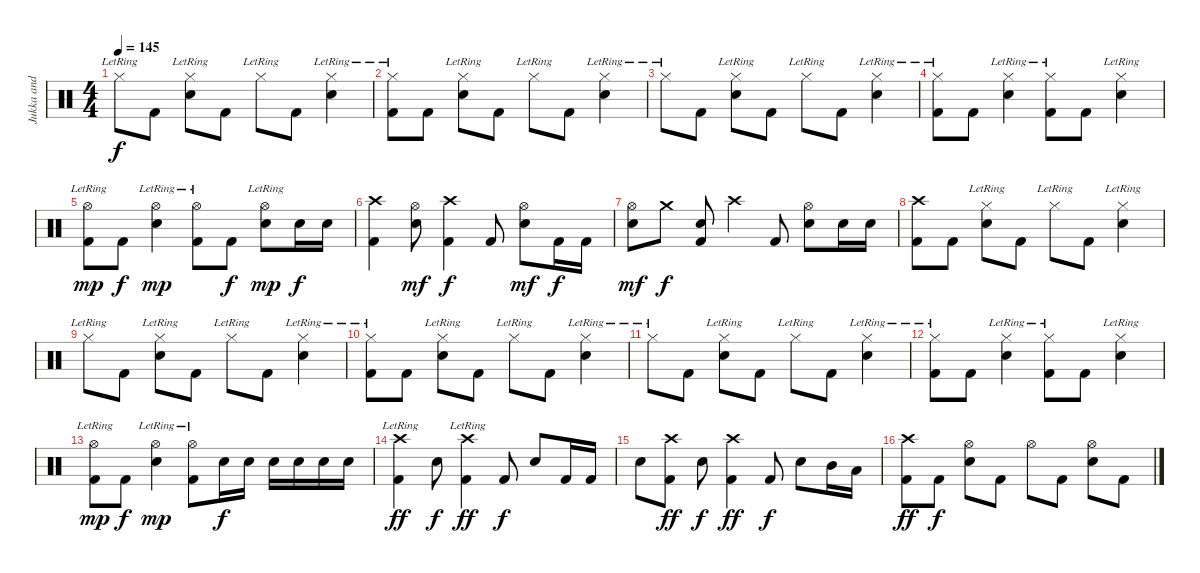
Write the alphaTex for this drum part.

\track ("Jukka and his drums" "Jukka and ") {instrument percussion}
\staff {score}
\articulation defaults
\ts (4 4)
\tempo 145
\clef neutral
\ks c "Hi-Hat (closed)"{lr}.8{dy f} "Kick (hit) 2".8
("Hi-Hat (closed)"{lr} "Snare (hit) 2").8 "Kick (hit) 2".8 "Hi-Hat (closed)"{lr}.8 "Kick (hit) 2".8 ("Hi-Hat (closed)"{lr} "Snare (hit) 2").4 |
("Kick (hit) 2" "Hi-Hat (closed)"{lr}).8 "Kick (hit) 2".8 ("Hi-Hat (closed)"{lr} "Snare (hit) 2").8 "Kick (hit) 2".8 "Hi-Hat (closed)"{lr}.8 "Kick (hit) 2".8 ("Hi-Hat (closed)"{lr} "Snare (hit) 2").4 |
"Hi-Hat (closed)"{lr}.8 "Kick (hit) 2".8 ("Hi-Hat (closed)"{lr} "Snare (hit) 2").8 "Kick (hit) 2".8 "Hi-Hat (closed)"{lr}.8 "Kick (hit) 2".8 ("Hi-Hat (closed)"{lr} "Snare (hit) 2").4 |
("Kick (hit) 2" "Hi-Hat (closed)"{lr}).8 "Kick (hit) 2".8 ("Hi-Hat (closed)"{lr} "Snare (hit) 2").4 ("Kick (hit) 2" "Hi-Hat (closed)"{lr}).8 "Kick (hit) 2".8 ("Hi-Hat (closed)"{lr} "Snare (hit) 2").4 |
("Kick (hit) 2" "Hi-Hat (open)"{lr}).8{dy mp} "Kick (hit) 2".8{dy f} ("Hi-Hat (open)"{lr} "Snare (hit) 2").4{dy mp} ("Kick (hit) 2" "Hi-Hat (open)"{lr}).8 "Kick (hit) 2".8{dy f} ("Hi-Hat (open)"{lr} "Snare (hit) 2").8{dy mp} "Snare (hit) 2".16{dy f} "Snare (hit) 2".16 |
("Kick (hit) 2" "Crash high (hit)").4 ("Hi-Hat (open)" "Snare (hit) 2").8{dy mf} ("Kick (hit) 2" "Crash high (hit)").4{dy f} "Kick (hit) 2".8 ("Hi-Hat (open)" "Snare (hit) 2").8{dy mf} "Kick (hit) 2".16{dy f} "Kick (hit) 2".16 |
("Hi-Hat (open)" "Snare (hit) 2").8{dy mf} "Crash medium (hit)".8{dy f} ("Kick (hit) 2" "Snare (hit) 2").8 "Crash high (hit)".4 "Kick (hit) 2".8 ("Hi-Hat (open)" "Snare (hit) 2").8 "Snare (hit) 2".16 "Snare (hit) 2".16 |
("Kick (hit) 2" "Crash high (hit)").8 "Kick (hit) 2".8 ("Hi-Hat (closed)"{lr} "Snare (hit) 2").8 "Kick (hit) 2".8 "Hi-Hat (closed)"{lr}.8 "Kick (hit) 2".8 ("Hi-Hat (closed)"{lr} "Snare (hit) 2").4 |
"Hi-Hat (closed)"{lr}.8 "Kick (hit) 2".8 ("Hi-Hat (closed)"{lr} "Snare (hit) 2").8 "Kick (hit) 2".8 "Hi-Hat (closed)"{lr}.8 "Kick (hit) 2".8 ("Hi-Hat (closed)"{lr} "Snare (hit) 2").4 |
("Kick (hit) 2" "Hi-Hat (closed)"{lr}).8 "Kick (hit) 2".8 ("Hi-Hat (closed)"{lr} "Snare (hit) 2").8 "Kick (hit) 2".8 "Hi-Hat (closed)"{lr}.8 "Kick (hit) 2".8 ("Hi-Hat (closed)"{lr} "Snare (hit) 2").4 |
"Hi-Hat (closed)"{lr}.8 "Kick (hit) 2".8 ("Hi-Hat (closed)"{lr} "Snare (hit) 2").8 "Kick (hit) 2".8 "Hi-Hat (closed)"{lr}.8 "Kick (hit) 2".8 ("Hi-Hat (closed)"{lr} "Snare (hit) 2").4 |
("Kick (hit) 2" "Hi-Hat (closed)"{lr}).8 "Kick (hit) 2".8 ("Hi-Hat (closed)"{lr} "Snare (hit) 2").4 ("Kick (hit) 2" "Hi-Hat (closed)"{lr}).8 "Kick (hit) 2".8 ("Hi-Hat (closed)"{lr} "Snare (hit) 2").4 |
("Kick (hit) 2" "Hi-Hat (open)"{lr}).8{dy mp} "Kick (hit) 2".8{dy f} ("Hi-Hat (open)"{lr} "Snare (hit) 2").4{dy mp} ("Kick (hit) 2" "Hi-Hat (open)"{lr}).8 "Snare (hit) 2".16{dy f} "Snare (hit) 2".16 "Snare (hit) 2".16 "Snare (hit) 2".16 "Snare (hit) 2".16 "Snare (hit) 2".16 |
("Kick (hit) 2" "Crash high (hit)"{lr}).4{dy ff} "Snare (hit) 2".8{dy f} ("Kick (hit) 2" "Crash high (hit)"{lr}).4{dy ff} "Kick (hit) 2".8{dy f} "Snare (hit) 2".8 "Kick (hit) 2".16 "Kick (hit) 2".16 |
"Snare (hit) 2".8 ("Kick (hit) 2" "Crash high (hit)").8{dy ff} "Snare (hit) 2".8{dy f} ("Kick (hit) 2" "Crash high (hit)").4{dy ff} "Kick (hit) 2".8{dy f} "Snare (hit) 2".8 "Mid Tom (hit)".16 "Low Tom (hit)".16 |
("Kick (hit) 2" "Crash high (hit)").8{dy ff} "Kick (hit) 2".8{dy f} ("Hi-Hat (open)" "Snare (hit) 2").8 "Kick (hit) 2".8 "Hi-Hat (open)".8 "Kick (hit) 2".8 ("Hi-Hat (open)" "Snare (hit) 2").8 "Kick (hit) 2".8
